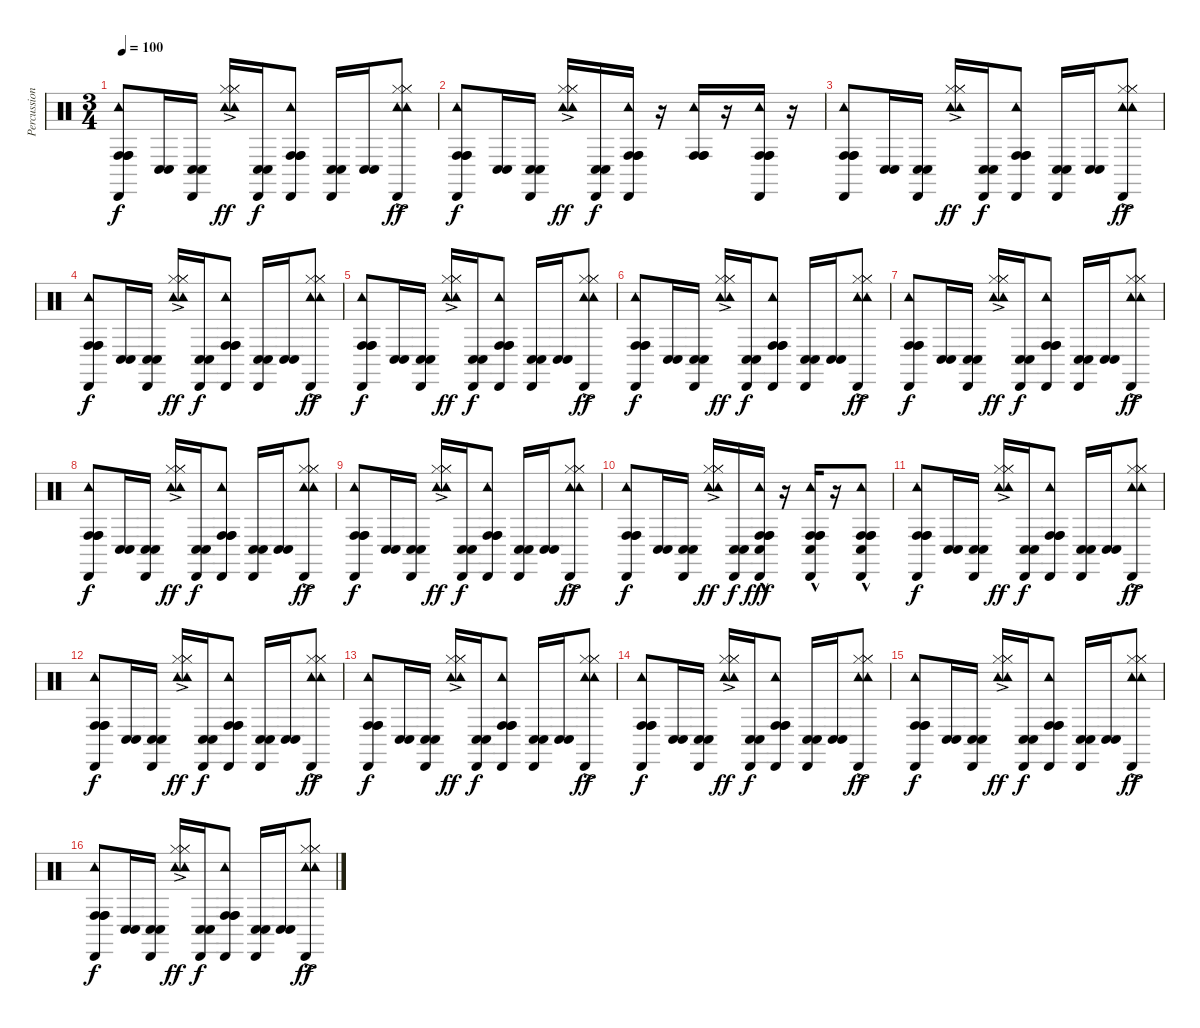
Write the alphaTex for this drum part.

\track ("Percussion" "Percussion") {instrument percussion}
\staff {score}
\articulation defaults
\ts (3 4)
\tempo 100
\clef neutral
\ks c
("Tambourine (hit)" "Conga high (hit)" "Conga high (hit)" "Conga high (hit)" "Cabasa (hit)").8{dy f} ("Conga low (hit)" "Conga low (hit)").16 ("Conga low (hit)" "Conga low (hit)" "Cabasa (hit)").16 ("Tambourine (hit)" "Tambourine (hit)" "Hi-Hat (closed)" "Hi-Hat (closed)" "Hi-Hat (closed)"{ac}).16{dy ff} ("Conga low (hit)" "Conga low (hit)" "Cabasa (hit)").16{dy f} ("Tambourine (hit)" "Conga high (hit)" "Conga high (hit)" "Conga high (hit)" "Cabasa (hit)").8 ("Conga low (hit)" "Conga low (hit)" "Cabasa (hit)").16 ("Conga low (hit)" "Conga low (hit)").16 ("Tambourine (hit)" "Tambourine (hit)" "Hi-Hat (closed)" "Hi-Hat (closed)" "Hi-Hat (closed)"{ac} "Cabasa (hit)").8{dy ff} |
("Tambourine (hit)" "Conga high (hit)" "Conga high (hit)" "Conga high (hit)" "Cabasa (hit)").8{dy f} ("Conga low (hit)" "Conga low (hit)").16 ("Conga low (hit)" "Conga low (hit)" "Cabasa (hit)").16 ("Tambourine (hit)" "Tambourine (hit)" "Hi-Hat (closed)" "Hi-Hat (closed)" "Hi-Hat (closed)"{ac}).16{dy ff} ("Conga low (hit)" "Conga low (hit)" "Cabasa (hit)").16{dy f} ("Tambourine (hit)" "Conga high (hit)" "Conga high (hit)" "Conga high (hit)" "Cabasa (hit)").16 r.16 ("Tambourine (hit)" "Conga high (hit)" "Conga high (hit)" "Conga high (hit)").16 r.16 ("Tambourine (hit)" "Conga high (hit)" "Conga high (hit)" "Conga high (hit)" "Cabasa (hit)").16 r.16 |
("Tambourine (hit)" "Conga high (hit)" "Conga high (hit)" "Conga high (hit)" "Cabasa (hit)").8 ("Conga low (hit)" "Conga low (hit)").16 ("Conga low (hit)" "Conga low (hit)" "Cabasa (hit)").16 ("Tambourine (hit)" "Tambourine (hit)" "Hi-Hat (closed)" "Hi-Hat (closed)" "Hi-Hat (closed)"{ac}).16{dy ff} ("Conga low (hit)" "Conga low (hit)" "Cabasa (hit)").16{dy f} ("Tambourine (hit)" "Conga high (hit)" "Conga high (hit)" "Conga high (hit)" "Cabasa (hit)").8 ("Conga low (hit)" "Conga low (hit)" "Cabasa (hit)").16 ("Conga low (hit)" "Conga low (hit)").16 ("Tambourine (hit)" "Tambourine (hit)" "Hi-Hat (closed)" "Hi-Hat (closed)" "Hi-Hat (closed)"{ac} "Cabasa (hit)").8{dy ff} |
("Tambourine (hit)" "Conga high (hit)" "Conga high (hit)" "Conga high (hit)" "Cabasa (hit)").8{dy f} ("Conga low (hit)" "Conga low (hit)").16 ("Conga low (hit)" "Conga low (hit)" "Cabasa (hit)").16 ("Tambourine (hit)" "Tambourine (hit)" "Hi-Hat (closed)" "Hi-Hat (closed)" "Hi-Hat (closed)"{ac}).16{dy ff} ("Conga low (hit)" "Conga low (hit)" "Cabasa (hit)").16{dy f} ("Tambourine (hit)" "Conga high (hit)" "Conga high (hit)" "Conga high (hit)" "Cabasa (hit)").8 ("Conga low (hit)" "Conga low (hit)" "Cabasa (hit)").16 ("Conga low (hit)" "Conga low (hit)").16 ("Tambourine (hit)" "Tambourine (hit)" "Hi-Hat (closed)" "Hi-Hat (closed)" "Hi-Hat (closed)"{ac} "Cabasa (hit)").8{dy ff} |
("Tambourine (hit)" "Conga high (hit)" "Conga high (hit)" "Conga high (hit)" "Cabasa (hit)").8{dy f} ("Conga low (hit)" "Conga low (hit)").16 ("Conga low (hit)" "Conga low (hit)" "Cabasa (hit)").16 ("Tambourine (hit)" "Tambourine (hit)" "Hi-Hat (closed)" "Hi-Hat (closed)" "Hi-Hat (closed)"{ac}).16{dy ff} ("Conga low (hit)" "Conga low (hit)" "Cabasa (hit)").16{dy f} ("Tambourine (hit)" "Conga high (hit)" "Conga high (hit)" "Conga high (hit)" "Cabasa (hit)").8 ("Conga low (hit)" "Conga low (hit)" "Cabasa (hit)").16 ("Conga low (hit)" "Conga low (hit)").16 ("Tambourine (hit)" "Tambourine (hit)" "Hi-Hat (closed)" "Hi-Hat (closed)" "Hi-Hat (closed)"{ac} "Cabasa (hit)").8{dy ff} |
("Tambourine (hit)" "Conga high (hit)" "Conga high (hit)" "Conga high (hit)" "Cabasa (hit)").8{dy f} ("Conga low (hit)" "Conga low (hit)").16 ("Conga low (hit)" "Conga low (hit)" "Cabasa (hit)").16 ("Tambourine (hit)" "Tambourine (hit)" "Hi-Hat (closed)" "Hi-Hat (closed)" "Hi-Hat (closed)"{ac}).16{dy ff} ("Conga low (hit)" "Conga low (hit)" "Cabasa (hit)").16{dy f} ("Tambourine (hit)" "Conga high (hit)" "Conga high (hit)" "Conga high (hit)" "Cabasa (hit)").8 ("Conga low (hit)" "Conga low (hit)" "Cabasa (hit)").16 ("Conga low (hit)" "Conga low (hit)").16 ("Tambourine (hit)" "Tambourine (hit)" "Hi-Hat (closed)" "Hi-Hat (closed)" "Hi-Hat (closed)"{ac} "Cabasa (hit)").8{dy ff} |
("Tambourine (hit)" "Conga high (hit)" "Conga high (hit)" "Conga high (hit)" "Cabasa (hit)").8{dy f} ("Conga low (hit)" "Conga low (hit)").16 ("Conga low (hit)" "Conga low (hit)" "Cabasa (hit)").16 ("Tambourine (hit)" "Tambourine (hit)" "Hi-Hat (closed)" "Hi-Hat (closed)" "Hi-Hat (closed)"{ac}).16{dy ff} ("Conga low (hit)" "Conga low (hit)" "Cabasa (hit)").16{dy f} ("Tambourine (hit)" "Conga high (hit)" "Conga high (hit)" "Conga high (hit)" "Cabasa (hit)").8 ("Conga low (hit)" "Conga low (hit)" "Cabasa (hit)").16 ("Conga low (hit)" "Conga low (hit)").16 ("Tambourine (hit)" "Tambourine (hit)" "Hi-Hat (closed)" "Hi-Hat (closed)" "Hi-Hat (closed)"{ac} "Cabasa (hit)").8{dy ff} |
("Tambourine (hit)" "Conga high (hit)" "Conga high (hit)" "Conga high (hit)" "Cabasa (hit)").8{dy f} ("Conga low (hit)" "Conga low (hit)").16 ("Conga low (hit)" "Conga low (hit)" "Cabasa (hit)").16 ("Tambourine (hit)" "Tambourine (hit)" "Hi-Hat (closed)" "Hi-Hat (closed)" "Hi-Hat (closed)"{ac}).16{dy ff} ("Conga low (hit)" "Conga low (hit)" "Cabasa (hit)").16{dy f} ("Tambourine (hit)" "Conga high (hit)" "Conga high (hit)" "Conga high (hit)" "Cabasa (hit)").8 ("Conga low (hit)" "Conga low (hit)" "Cabasa (hit)").16 ("Conga low (hit)" "Conga low (hit)").16 ("Tambourine (hit)" "Tambourine (hit)" "Hi-Hat (closed)" "Hi-Hat (closed)" "Hi-Hat (closed)"{ac} "Cabasa (hit)").8{dy ff} |
("Tambourine (hit)" "Conga high (hit)" "Conga high (hit)" "Conga high (hit)" "Cabasa (hit)").8{dy f} ("Conga low (hit)" "Conga low (hit)").16 ("Conga low (hit)" "Conga low (hit)" "Cabasa (hit)").16 ("Tambourine (hit)" "Tambourine (hit)" "Hi-Hat (closed)" "Hi-Hat (closed)" "Hi-Hat (closed)"{ac}).16{dy ff} ("Conga low (hit)" "Conga low (hit)" "Cabasa (hit)").16{dy f} ("Tambourine (hit)" "Conga high (hit)" "Conga high (hit)" "Conga high (hit)" "Cabasa (hit)").8 ("Conga low (hit)" "Conga low (hit)" "Cabasa (hit)").16 ("Conga low (hit)" "Conga low (hit)").16 ("Tambourine (hit)" "Tambourine (hit)" "Hi-Hat (closed)" "Hi-Hat (closed)" "Hi-Hat (closed)"{ac} "Cabasa (hit)").8{dy ff} |
("Tambourine (hit)" "Conga high (hit)" "Conga high (hit)" "Conga high (hit)" "Cabasa (hit)").8{dy f} ("Conga low (hit)" "Conga low (hit)").16 ("Conga low (hit)" "Conga low (hit)" "Cabasa (hit)").16 ("Tambourine (hit)" "Tambourine (hit)" "Hi-Hat (closed)" "Hi-Hat (closed)" "Hi-Hat (closed)"{ac}).16{dy ff} ("Conga low (hit)" "Conga low (hit)" "Cabasa (hit)").16{dy f} ("Tambourine (hit)"{hac} "Conga high (hit)"{hac} "Conga high (hit)"{hac} "Conga high (hit)"{hac} "Cabasa (hit)"{hac} "Conga low (hit)"{hac}).16{dy fff} r.16 ("Tambourine (hit)"{hac} "Conga high (hit)"{hac} "Conga high (hit)"{hac} "Conga high (hit)"{hac} "Conga low (hit)"{hac} "Cabasa (hit)"{hac}).16 r.16 ("Tambourine (hit)"{hac} "Conga high (hit)"{hac} "Conga high (hit)"{hac} "Conga high (hit)"{hac} "Conga low (hit)"{hac} "Cabasa (hit)"{hac}).8 |
("Tambourine (hit)" "Conga high (hit)" "Conga high (hit)" "Conga high (hit)" "Cabasa (hit)").8{dy f} ("Conga low (hit)" "Conga low (hit)").16 ("Conga low (hit)" "Conga low (hit)" "Cabasa (hit)").16 ("Tambourine (hit)" "Tambourine (hit)" "Hi-Hat (closed)" "Hi-Hat (closed)" "Hi-Hat (closed)"{ac}).16{dy ff} ("Conga low (hit)" "Conga low (hit)" "Cabasa (hit)").16{dy f} ("Tambourine (hit)" "Conga high (hit)" "Conga high (hit)" "Conga high (hit)" "Cabasa (hit)").8 ("Conga low (hit)" "Conga low (hit)" "Cabasa (hit)").16 ("Conga low (hit)" "Conga low (hit)").16 ("Tambourine (hit)" "Tambourine (hit)" "Hi-Hat (closed)" "Hi-Hat (closed)" "Hi-Hat (closed)"{ac} "Cabasa (hit)").8{dy ff} |
("Tambourine (hit)" "Conga high (hit)" "Conga high (hit)" "Conga high (hit)" "Cabasa (hit)").8{dy f} ("Conga low (hit)" "Conga low (hit)").16 ("Conga low (hit)" "Conga low (hit)" "Cabasa (hit)").16 ("Tambourine (hit)" "Tambourine (hit)" "Hi-Hat (closed)" "Hi-Hat (closed)" "Hi-Hat (closed)"{ac}).16{dy ff} ("Conga low (hit)" "Conga low (hit)" "Cabasa (hit)").16{dy f} ("Tambourine (hit)" "Conga high (hit)" "Conga high (hit)" "Conga high (hit)" "Cabasa (hit)").8 ("Conga low (hit)" "Conga low (hit)" "Cabasa (hit)").16 ("Conga low (hit)" "Conga low (hit)").16 ("Tambourine (hit)" "Tambourine (hit)" "Hi-Hat (closed)" "Hi-Hat (closed)" "Hi-Hat (closed)"{ac} "Cabasa (hit)").8{dy ff} |
("Tambourine (hit)" "Conga high (hit)" "Conga high (hit)" "Conga high (hit)" "Cabasa (hit)").8{dy f} ("Conga low (hit)" "Conga low (hit)").16 ("Conga low (hit)" "Conga low (hit)" "Cabasa (hit)").16 ("Tambourine (hit)" "Tambourine (hit)" "Hi-Hat (closed)" "Hi-Hat (closed)" "Hi-Hat (closed)"{ac}).16{dy ff} ("Conga low (hit)" "Conga low (hit)" "Cabasa (hit)").16{dy f} ("Tambourine (hit)" "Conga high (hit)" "Conga high (hit)" "Conga high (hit)" "Cabasa (hit)").8 ("Conga low (hit)" "Conga low (hit)" "Cabasa (hit)").16 ("Conga low (hit)" "Conga low (hit)").16 ("Tambourine (hit)" "Tambourine (hit)" "Hi-Hat (closed)" "Hi-Hat (closed)" "Hi-Hat (closed)"{ac} "Cabasa (hit)").8{dy ff} |
("Tambourine (hit)" "Conga high (hit)" "Conga high (hit)" "Conga high (hit)" "Cabasa (hit)").8{dy f} ("Conga low (hit)" "Conga low (hit)").16 ("Conga low (hit)" "Conga low (hit)" "Cabasa (hit)").16 ("Tambourine (hit)" "Tambourine (hit)" "Hi-Hat (closed)" "Hi-Hat (closed)" "Hi-Hat (closed)"{ac}).16{dy ff} ("Conga low (hit)" "Conga low (hit)" "Cabasa (hit)").16{dy f} ("Tambourine (hit)" "Conga high (hit)" "Conga high (hit)" "Conga high (hit)" "Cabasa (hit)").8 ("Conga low (hit)" "Conga low (hit)" "Cabasa (hit)").16 ("Conga low (hit)" "Conga low (hit)").16 ("Tambourine (hit)" "Tambourine (hit)" "Hi-Hat (closed)" "Hi-Hat (closed)" "Hi-Hat (closed)"{ac} "Cabasa (hit)").8{dy ff} |
("Tambourine (hit)" "Conga high (hit)" "Conga high (hit)" "Conga high (hit)" "Cabasa (hit)").8{dy f} ("Conga low (hit)" "Conga low (hit)").16 ("Conga low (hit)" "Conga low (hit)" "Cabasa (hit)").16 ("Tambourine (hit)" "Tambourine (hit)" "Hi-Hat (closed)" "Hi-Hat (closed)" "Hi-Hat (closed)"{ac}).16{dy ff} ("Conga low (hit)" "Conga low (hit)" "Cabasa (hit)").16{dy f} ("Tambourine (hit)" "Conga high (hit)" "Conga high (hit)" "Conga high (hit)" "Cabasa (hit)").8 ("Conga low (hit)" "Conga low (hit)" "Cabasa (hit)").16 ("Conga low (hit)" "Conga low (hit)").16 ("Tambourine (hit)" "Tambourine (hit)" "Hi-Hat (closed)" "Hi-Hat (closed)" "Hi-Hat (closed)"{ac} "Cabasa (hit)").8{dy ff} |
("Tambourine (hit)" "Conga high (hit)" "Conga high (hit)" "Conga high (hit)" "Cabasa (hit)").8{dy f} ("Conga low (hit)" "Conga low (hit)").16 ("Conga low (hit)" "Conga low (hit)" "Cabasa (hit)").16 ("Tambourine (hit)" "Tambourine (hit)" "Hi-Hat (closed)" "Hi-Hat (closed)" "Hi-Hat (closed)"{ac}).16{dy ff} ("Conga low (hit)" "Conga low (hit)" "Cabasa (hit)").16{dy f} ("Tambourine (hit)" "Conga high (hit)" "Conga high (hit)" "Conga high (hit)" "Cabasa (hit)").8 ("Conga low (hit)" "Conga low (hit)" "Cabasa (hit)").16 ("Conga low (hit)" "Conga low (hit)").16 ("Tambourine (hit)" "Tambourine (hit)" "Hi-Hat (closed)" "Hi-Hat (closed)" "Hi-Hat (closed)"{ac} "Cabasa (hit)").8{dy ff}
